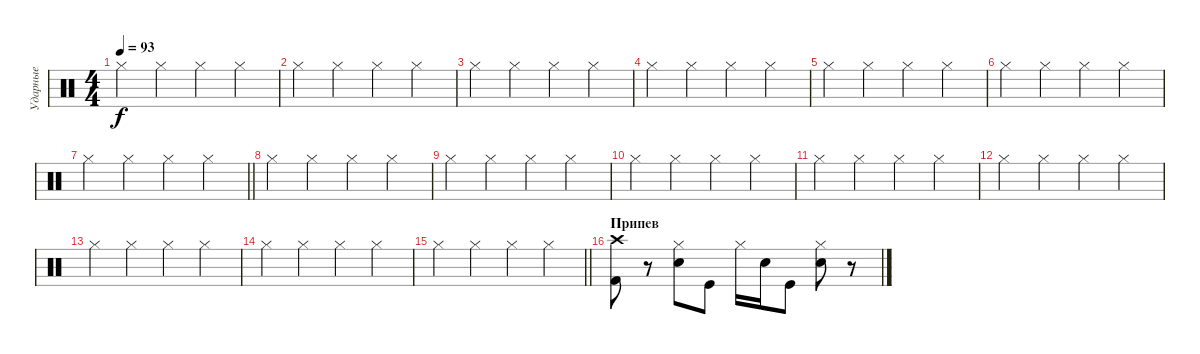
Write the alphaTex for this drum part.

\track ("Ударные" "Ударные") {instrument percussion}
\staff {score}
\articulation defaults
\ts (4 4)
\tempo 93
\clef neutral
\ks c "Hi-Hat (closed)".4{dy f} "Hi-Hat (closed)".4 "Hi-Hat (closed)".4 "Hi-Hat (closed)".4
|
"Hi-Hat (closed)".4 "Hi-Hat (closed)".4 "Hi-Hat (closed)".4 "Hi-Hat (closed)".4 |
"Hi-Hat (closed)".4 "Hi-Hat (closed)".4 "Hi-Hat (closed)".4 "Hi-Hat (closed)".4 |
"Hi-Hat (closed)".4 "Hi-Hat (closed)".4 "Hi-Hat (closed)".4 "Hi-Hat (closed)".4 |
"Hi-Hat (closed)".4 "Hi-Hat (closed)".4 "Hi-Hat (closed)".4 "Hi-Hat (closed)".4 |
"Hi-Hat (closed)".4 "Hi-Hat (closed)".4 "Hi-Hat (closed)".4 "Hi-Hat (closed)".4 |
\barLineRight lightlight "Hi-Hat (closed)".4 "Hi-Hat (closed)".4 "Hi-Hat (closed)".4 "Hi-Hat (closed)".4
|
"Hi-Hat (closed)".4 "Hi-Hat (closed)".4 "Hi-Hat (closed)".4 "Hi-Hat (closed)".4 |
"Hi-Hat (closed)".4 "Hi-Hat (closed)".4 "Hi-Hat (closed)".4 "Hi-Hat (closed)".4 |
"Hi-Hat (closed)".4 "Hi-Hat (closed)".4 "Hi-Hat (closed)".4 "Hi-Hat (closed)".4 |
"Hi-Hat (closed)".4 "Hi-Hat (closed)".4 "Hi-Hat (closed)".4 "Hi-Hat (closed)".4 |
"Hi-Hat (closed)".4 "Hi-Hat (closed)".4 "Hi-Hat (closed)".4 "Hi-Hat (closed)".4 |
"Hi-Hat (closed)".4 "Hi-Hat (closed)".4 "Hi-Hat (closed)".4 "Hi-Hat (closed)".4 |
"Hi-Hat (closed)".4 "Hi-Hat (closed)".4 "Hi-Hat (closed)".4 "Hi-Hat (closed)".4 |
\barLineRight lightlight "Hi-Hat (closed)".4 "Hi-Hat (closed)".4 "Hi-Hat (closed)".4 "Hi-Hat (closed)".4
|
\section ("" "Припев")
("Crash high (hit)" "Kick (hit) 2").8 r.8 ("Hi-Hat (closed)" "Electric Snare (hit)").8 "Kick (hit)".8 "Hi-Hat (closed)".16 "Electric Snare (hit)".16 "Kick (hit)".8 ("Hi-Hat (closed)" "Electric Snare (hit)").8 r.8
